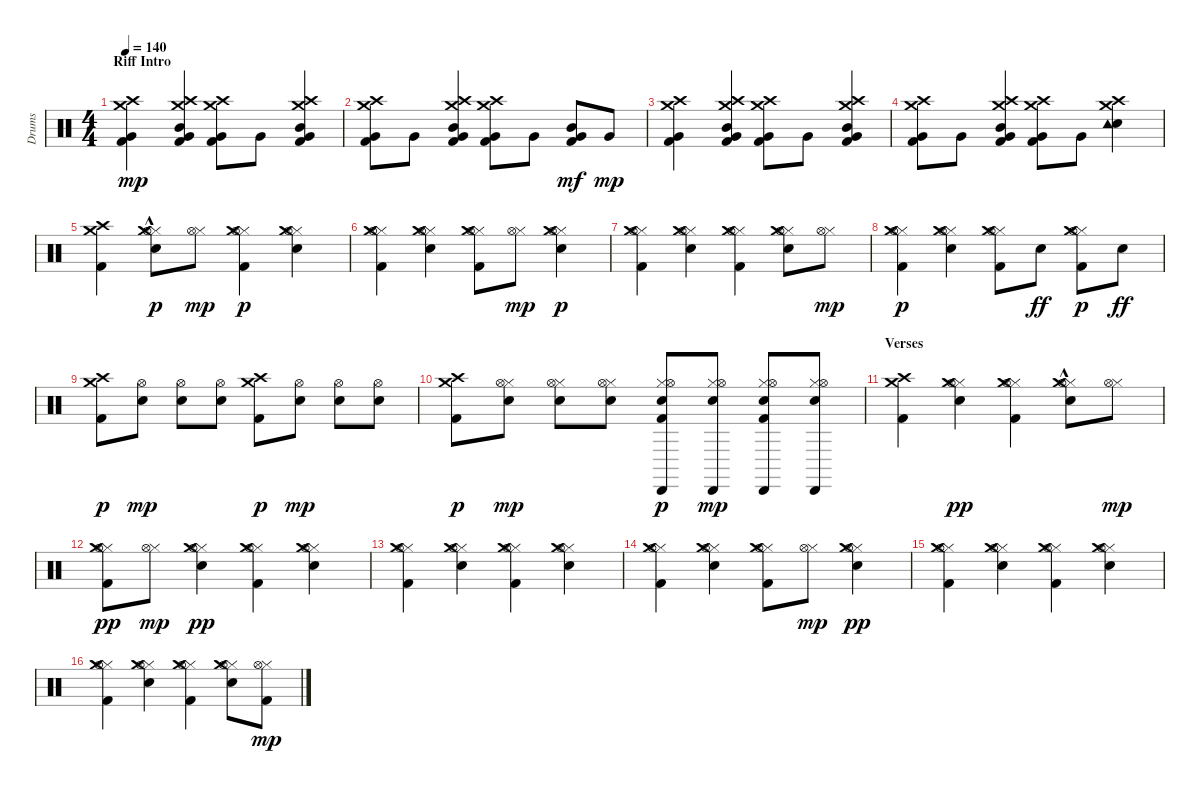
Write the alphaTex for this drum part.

\track ("Drums" "Drums") {instrument percussion}
\staff {score}
\articulation defaults
\ts (4 4)
\section ("" "Riff Intro")
\tempo 140
\clef neutral
\ks c
("Kick (hit) 2" "Crash high (hit)" "Very Low Tom (hit)" "Crash medium (hit)").4{dy mp} ("Kick (hit) 2" "Crash high (hit)" "Mid Tom (hit)" "Very Low Tom (hit)" "Crash medium (hit)").4 ("Kick (hit) 2" "Crash high (hit)" "Very Low Tom (hit)" "Crash medium (hit)").8 "Very Low Tom (hit)".8 ("Kick (hit) 2" "Crash high (hit)" "Mid Tom (hit)" "Very Low Tom (hit)" "Crash medium (hit)").4 |
("Kick (hit) 2" "Very Low Tom (hit)" "Crash high (hit)" "Crash medium (hit)").8 "Very Low Tom (hit)".8 ("Kick (hit) 2" "Crash high (hit)" "Mid Tom (hit)" "Very Low Tom (hit)" "Crash medium (hit)").4 ("Kick (hit) 2" "Very Low Tom (hit)" "Crash high (hit)" "Crash medium (hit)").8 "Very Low Tom (hit)".8 ("Kick (hit) 2" "Very Low Tom (hit)" "Mid Tom (hit)").8{dy mf} "Very Low Tom (hit)".8{dy mp} |
("Kick (hit) 2" "Very Low Tom (hit)" "Crash high (hit)" "Crash medium (hit)").4 ("Kick (hit) 2" "Crash high (hit)" "Mid Tom (hit)" "Very Low Tom (hit)" "Crash medium (hit)").4 ("Kick (hit) 2" "Very Low Tom (hit)" "Crash high (hit)" "Crash medium (hit)").8 "Very Low Tom (hit)".8 ("Kick (hit) 2" "Crash high (hit)" "Mid Tom (hit)" "Very Low Tom (hit)" "Crash medium (hit)").4 |
("Kick (hit) 2" "Very Low Tom (hit)" "Crash high (hit)" "Crash medium (hit)").8 "Very Low Tom (hit)".8 ("Kick (hit) 2" "Crash high (hit)" "Mid Tom (hit)" "Very Low Tom (hit)" "Crash medium (hit)").4 ("Kick (hit) 2" "Very Low Tom (hit)" "Crash high (hit)" "Crash medium (hit)").8 "Very Low Tom (hit)".8 ("Crash high (hit)" "Crash medium (hit)" "Snare (hit) 2" "Tambourine (hit)").4 |
("Kick (hit) 2" "Crash high (hit)" "Crash medium (hit)").4 ("Snare (hit) 2"{hac} "Hi-Hat (closed)" "Hi-Hat (open)" "Crash medium (hit)").8{dy p} ("Hi-Hat (closed)" "Hi-Hat (open)").8{dy mp} ("Kick (hit) 2" "Hi-Hat (closed)" "Hi-Hat (open)" "Crash medium (hit)").4{dy p} ("Snare (hit) 2" "Hi-Hat (closed)" "Hi-Hat (open)" "Crash medium (hit)").4 |
("Kick (hit) 2" "Hi-Hat (closed)" "Hi-Hat (open)" "Crash medium (hit)").4 ("Snare (hit) 2" "Hi-Hat (closed)" "Hi-Hat (open)" "Crash medium (hit)").4 ("Kick (hit) 2" "Hi-Hat (closed)" "Hi-Hat (open)" "Crash medium (hit)").8 ("Hi-Hat (closed)" "Hi-Hat (open)").8{dy mp} ("Snare (hit) 2" "Hi-Hat (closed)" "Hi-Hat (open)" "Crash medium (hit)").4{dy p} |
("Kick (hit) 2" "Hi-Hat (closed)" "Hi-Hat (open)" "Crash medium (hit)").4 ("Snare (hit) 2" "Hi-Hat (closed)" "Hi-Hat (open)" "Crash medium (hit)").4 ("Kick (hit) 2" "Hi-Hat (closed)" "Hi-Hat (open)" "Crash medium (hit)").4 ("Snare (hit) 2" "Hi-Hat (closed)" "Hi-Hat (open)" "Crash medium (hit)").8 ("Hi-Hat (closed)" "Hi-Hat (open)").8{dy mp} |
("Kick (hit) 2" "Hi-Hat (closed)" "Hi-Hat (open)" "Crash medium (hit)").4{dy p} ("Snare (hit) 2" "Hi-Hat (closed)" "Hi-Hat (open)" "Crash medium (hit)").4 ("Kick (hit) 2" "Hi-Hat (closed)" "Hi-Hat (open)" "Crash medium (hit)").8 "Snare (hit) 2".8{dy ff} ("Kick (hit) 2" "Hi-Hat (closed)" "Hi-Hat (open)" "Crash medium (hit)").8{dy p} "Snare (hit) 2".8{dy ff} |
("Kick (hit) 2" "Crash high (hit)" "Crash medium (hit)").8{dy p} ("Snare (hit) 2" "Hi-Hat (open)").8{dy mp} ("Snare (hit) 2" "Hi-Hat (open)").8 ("Snare (hit) 2" "Hi-Hat (open)").8 ("Kick (hit) 2" "Crash high (hit)" "Crash medium (hit)").8{dy p} ("Snare (hit) 2" "Hi-Hat (open)").8{dy mp} ("Snare (hit) 2" "Hi-Hat (open)").8 ("Snare (hit) 2" "Hi-Hat (open)").8 |
("Kick (hit) 2" "Crash high (hit)" "Crash medium (hit)").8{dy p} ("Snare (hit) 2" "Hi-Hat (closed)" "Hi-Hat (open)").8{dy mp} ("Snare (hit) 2" "Hi-Hat (closed)" "Hi-Hat (open)").8 ("Snare (hit) 2" "Hi-Hat (closed)" "Hi-Hat (open)").8 ("Kick (hit) 2" "Hi-Hat (closed)" "Hi-Hat (open)" "Snare (hit) 2" "Cabasa (hit)").8{dy p} ("Hi-Hat (closed)" "Hi-Hat (open)" "Snare (hit) 2" "Cabasa (hit)").8{dy mp} ("Kick (hit) 2" "Hi-Hat (closed)" "Hi-Hat (open)" "Snare (hit) 2" "Cabasa (hit)").8 ("Hi-Hat (closed)" "Hi-Hat (open)" "Snare (hit) 2" "Cabasa (hit)").8 |
\section ("" "Verses")
("Kick (hit) 2" "Crash high (hit)" "Crash medium (hit)").4 ("Snare (hit) 2" "Hi-Hat (closed)" "Hi-Hat (open)" "Crash medium (hit)").4{dy pp} ("Kick (hit) 2" "Hi-Hat (closed)" "Hi-Hat (open)" "Crash medium (hit)").4 ("Snare (hit) 2"{hac} "Hi-Hat (closed)" "Hi-Hat (open)" "Crash medium (hit)").8 ("Hi-Hat (closed)" "Hi-Hat (open)").8{dy mp} |
("Kick (hit) 2" "Hi-Hat (closed)" "Hi-Hat (open)" "Crash medium (hit)").8{dy pp} ("Hi-Hat (closed)" "Hi-Hat (open)").8{dy mp} ("Snare (hit) 2" "Hi-Hat (closed)" "Hi-Hat (open)" "Crash medium (hit)").4{dy pp} ("Kick (hit) 2" "Hi-Hat (closed)" "Hi-Hat (open)" "Crash medium (hit)").4 ("Snare (hit) 2" "Hi-Hat (closed)" "Hi-Hat (open)" "Crash medium (hit)").4 |
("Kick (hit) 2" "Hi-Hat (closed)" "Hi-Hat (open)" "Crash medium (hit)").4 ("Snare (hit) 2" "Hi-Hat (closed)" "Hi-Hat (open)" "Crash medium (hit)").4 ("Kick (hit) 2" "Hi-Hat (closed)" "Hi-Hat (open)" "Crash medium (hit)").4 ("Snare (hit) 2" "Hi-Hat (closed)" "Hi-Hat (open)" "Crash medium (hit)").4 |
("Kick (hit) 2" "Hi-Hat (closed)" "Hi-Hat (open)" "Crash medium (hit)").4 ("Snare (hit) 2" "Hi-Hat (closed)" "Hi-Hat (open)" "Crash medium (hit)").4 ("Kick (hit) 2" "Hi-Hat (closed)" "Hi-Hat (open)" "Crash medium (hit)").8 ("Hi-Hat (closed)" "Hi-Hat (open)").8{dy mp} ("Snare (hit) 2" "Hi-Hat (closed)" "Hi-Hat (open)" "Crash medium (hit)").4{dy pp} |
("Kick (hit) 2" "Hi-Hat (closed)" "Hi-Hat (open)" "Crash medium (hit)").4 ("Snare (hit) 2" "Hi-Hat (closed)" "Hi-Hat (open)" "Crash medium (hit)").4 ("Kick (hit) 2" "Hi-Hat (closed)" "Hi-Hat (open)" "Crash medium (hit)").4 ("Snare (hit) 2" "Hi-Hat (closed)" "Hi-Hat (open)" "Crash medium (hit)").4 |
("Kick (hit) 2" "Hi-Hat (closed)" "Hi-Hat (open)" "Crash medium (hit)").4 ("Snare (hit) 2" "Hi-Hat (closed)" "Hi-Hat (open)" "Crash medium (hit)").4 ("Kick (hit) 2" "Hi-Hat (closed)" "Hi-Hat (open)" "Crash medium (hit)").4 ("Snare (hit) 2" "Hi-Hat (closed)" "Hi-Hat (open)" "Crash medium (hit)").8 ("Kick (hit) 2" "Hi-Hat (closed)" "Hi-Hat (open)").8{dy mp}
